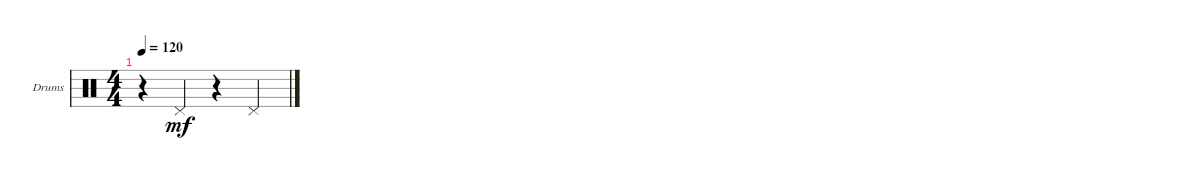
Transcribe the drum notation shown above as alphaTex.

\defaultSystemsLayout 4
\bracketExtendMode groupsimilarinstruments
\firstSystemTrackNameOrientation horizontal
\otherSystemsTrackNameOrientation horizontal
\track ("Drumkit" "Drums") {instrument percussion}
\staff {score}
\articulation defaults
\ts (4 4)
\tempo 120
\clef neutral
\ks c
r.4{dy mf} "Pedal Hi-Hat (hit)".4 r.4 "Pedal Hi-Hat (hit)".4
